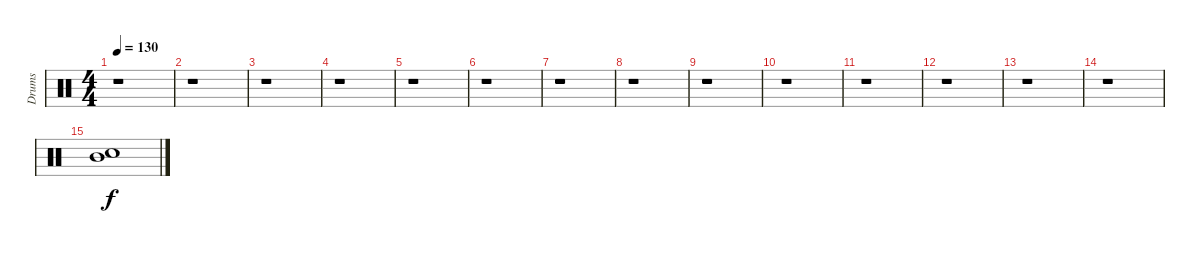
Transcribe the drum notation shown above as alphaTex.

\track ("Drums" "Drums") {instrument percussion}
\staff {score}
\articulation defaults
\ts (4 4)
\tempo 130
\clef neutral
\ks c
r.1{dy f} |
r.1 |
r.1 |
r.1 |
r.1 |
r.1 |
r.1 |
r.1 |
r.1 |
r.1 |
r.1 |
r.1 |
r.1 |
r.1 |
("Snare (hit) 2" "Mid Tom (hit)").1
